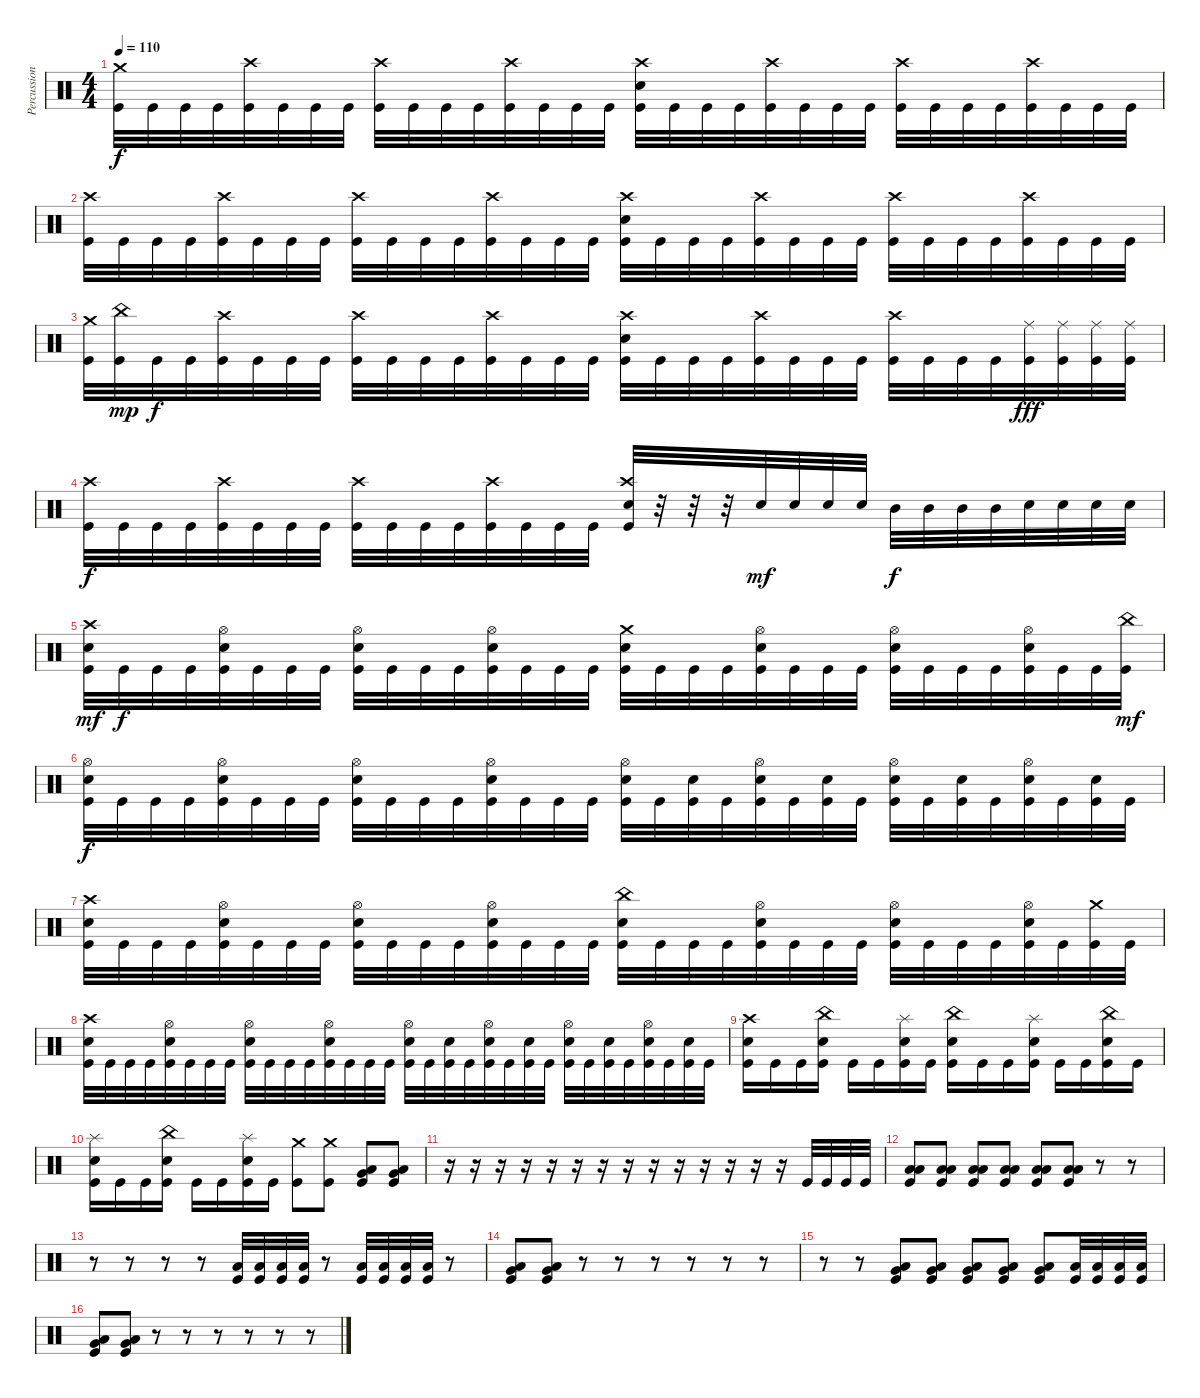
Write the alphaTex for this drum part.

\track ("Percussion" "Percussion") {instrument percussion}
\staff {score}
\articulation defaults
\ts (4 4)
\tempo 110
\clef neutral
\ks c
("Crash medium (hit)" "Kick (hit)").32{dy f} "Kick (hit)".32 "Kick (hit)".32 "Kick (hit)".32 ("Crash high (hit)" "Kick (hit)").32 "Kick (hit)".32 "Kick (hit)".32 "Kick (hit)".32 ("Crash high (hit)" "Kick (hit)").32 "Kick (hit)".32 "Kick (hit)".32 "Kick (hit)".32 ("Crash high (hit)" "Kick (hit)").32 "Kick (hit)".32 "Kick (hit)".32 "Kick (hit)".32 ("Crash high (hit)" "Snare (hit) 2" "Kick (hit)").32 "Kick (hit)".32 "Kick (hit)".32 "Kick (hit)".32 ("Crash high (hit)" "Kick (hit)").32 "Kick (hit)".32 "Kick (hit)".32 "Kick (hit)".32 ("Crash high (hit)" "Kick (hit)").32 "Kick (hit)".32 "Kick (hit)".32 "Kick (hit)".32 ("Crash high (hit)" "Kick (hit)").32 "Kick (hit)".32 "Kick (hit)".32 "Kick (hit)".32 |
("Crash high (hit)" "Kick (hit)").32 "Kick (hit)".32 "Kick (hit)".32 "Kick (hit)".32 ("Crash high (hit)" "Kick (hit)").32 "Kick (hit)".32 "Kick (hit)".32 "Kick (hit)".32 ("Crash high (hit)" "Kick (hit)").32 "Kick (hit)".32 "Kick (hit)".32 "Kick (hit)".32 ("Crash high (hit)" "Kick (hit)").32 "Kick (hit)".32 "Kick (hit)".32 "Kick (hit)".32 ("Crash high (hit)" "Snare (hit) 2" "Kick (hit)").32 "Kick (hit)".32 "Kick (hit)".32 "Kick (hit)".32 ("Crash high (hit)" "Kick (hit)").32 "Kick (hit)".32 "Kick (hit)".32 "Kick (hit)".32 ("Crash high (hit)" "Kick (hit)").32 "Kick (hit)".32 "Kick (hit)".32 "Kick (hit)".32 ("Crash high (hit)" "Kick (hit)").32 "Kick (hit)".32 "Kick (hit)".32 "Kick (hit)".32 |
("Crash medium (hit)" "Kick (hit)").32 ("China (hit)" "Kick (hit)").32{dy mp} "Kick (hit)".32{dy f} "Kick (hit)".32 ("Crash high (hit)" "Kick (hit)").32 "Kick (hit)".32 "Kick (hit)".32 "Kick (hit)".32 ("Crash high (hit)" "Kick (hit)").32 "Kick (hit)".32 "Kick (hit)".32 "Kick (hit)".32 ("Crash high (hit)" "Kick (hit)").32 "Kick (hit)".32 "Kick (hit)".32 "Kick (hit)".32 ("Crash high (hit)" "Snare (hit) 2" "Kick (hit)").32 "Kick (hit)".32 "Kick (hit)".32 "Kick (hit)".32 ("Crash high (hit)" "Kick (hit)").32 "Kick (hit)".32 "Kick (hit)".32 "Kick (hit)".32 ("Crash high (hit)" "Kick (hit)").32 "Kick (hit)".32 "Kick (hit)".32 "Kick (hit)".32 ("Ride (middle)" "Kick (hit)").32{dy fff} ("Ride (middle)" "Kick (hit)").32 ("Ride (middle)" "Kick (hit)").32 ("Ride (middle)" "Kick (hit)").32 |
("Crash high (hit)" "Kick (hit)").32{dy f} "Kick (hit)".32 "Kick (hit)".32 "Kick (hit)".32 ("Crash high (hit)" "Kick (hit)").32 "Kick (hit)".32 "Kick (hit)".32 "Kick (hit)".32 ("Crash high (hit)" "Kick (hit)").32 "Kick (hit)".32 "Kick (hit)".32 "Kick (hit)".32 ("Crash high (hit)" "Kick (hit)").32 "Kick (hit)".32 "Kick (hit)".32 "Kick (hit)".32 ("Crash high (hit)" "Snare (hit) 2" "Kick (hit)").32 r.32 r.32 r.32 "Snare (hit) 2".32{dy mf} "Snare (hit) 2".32 "Snare (hit) 2".32 "Snare (hit) 2".32 "Mid Tom (hit)".32{dy f} "Mid Tom (hit)".32 "Mid Tom (hit)".32 "Mid Tom (hit)".32 "Snare (hit) 2".32 "Snare (hit) 2".32 "Snare (hit) 2".32 "Snare (hit) 2".32 |
("Crash high (hit)" "Snare (hit) 2" "Kick (hit)").32{dy mf} "Kick (hit)".32{dy f} "Kick (hit)".32 "Kick (hit)".32 ("Hi-Hat (open)" "Snare (hit) 2" "Kick (hit)").32 "Kick (hit)".32 "Kick (hit)".32 "Kick (hit)".32 ("Hi-Hat (open)" "Snare (hit) 2" "Kick (hit)").32 "Kick (hit)".32 "Kick (hit)".32 "Kick (hit)".32 ("Hi-Hat (open)" "Snare (hit) 2" "Kick (hit)").32 "Kick (hit)".32 "Kick (hit)".32 "Kick (hit)".32 ("Crash medium (hit)" "Snare (hit) 2" "Kick (hit)").32 "Kick (hit)".32 "Kick (hit)".32 "Kick (hit)".32 ("Hi-Hat (open)" "Snare (hit) 2" "Kick (hit)").32 "Kick (hit)".32 "Kick (hit)".32 "Kick (hit)".32 ("Hi-Hat (open)" "Snare (hit) 2" "Kick (hit)").32 "Kick (hit)".32 "Kick (hit)".32 "Kick (hit)".32 ("Hi-Hat (open)" "Snare (hit) 2" "Kick (hit)").32 "Kick (hit)".32 "Kick (hit)".32 ("China (hit)" "Kick (hit)").32{dy mf} |
("Hi-Hat (open)" "Snare (hit) 2" "Kick (hit)").32{dy f} "Kick (hit)".32 "Kick (hit)".32 "Kick (hit)".32 ("Hi-Hat (open)" "Snare (hit) 2" "Kick (hit)").32 "Kick (hit)".32 "Kick (hit)".32 "Kick (hit)".32 ("Hi-Hat (open)" "Snare (hit) 2" "Kick (hit)").32 "Kick (hit)".32 "Kick (hit)".32 "Kick (hit)".32 ("Hi-Hat (open)" "Snare (hit) 2" "Kick (hit)").32 "Kick (hit)".32 "Kick (hit)".32 "Kick (hit)".32 ("Hi-Hat (open)" "Snare (hit) 2" "Kick (hit)").32 "Kick (hit)".32 ("Snare (hit) 2" "Kick (hit)").32 "Kick (hit)".32 ("Hi-Hat (open)" "Snare (hit) 2" "Kick (hit)").32 "Kick (hit)".32 ("Snare (hit) 2" "Kick (hit)").32 "Kick (hit)".32 ("Hi-Hat (open)" "Snare (hit) 2" "Kick (hit)").32 "Kick (hit)".32 ("Snare (hit) 2" "Kick (hit)").32 "Kick (hit)".32 ("Hi-Hat (open)" "Snare (hit) 2" "Kick (hit)").32 "Kick (hit)".32 ("Snare (hit) 2" "Kick (hit)").32 "Kick (hit)".32 |
("Crash high (hit)" "Snare (hit) 2" "Kick (hit)").32 "Kick (hit)".32 "Kick (hit)".32 "Kick (hit)".32 ("Hi-Hat (open)" "Snare (hit) 2" "Kick (hit)").32 "Kick (hit)".32 "Kick (hit)".32 "Kick (hit)".32 ("Hi-Hat (open)" "Snare (hit) 2" "Kick (hit)").32 "Kick (hit)".32 "Kick (hit)".32 "Kick (hit)".32 ("Hi-Hat (open)" "Snare (hit) 2" "Kick (hit)").32 "Kick (hit)".32 "Kick (hit)".32 "Kick (hit)".32 ("China (hit)" "Snare (hit) 2" "Kick (hit)").32 "Kick (hit)".32 "Kick (hit)".32 "Kick (hit)".32 ("Hi-Hat (open)" "Snare (hit) 2" "Kick (hit)").32 "Kick (hit)".32 "Kick (hit)".32 "Kick (hit)".32 ("Hi-Hat (open)" "Snare (hit) 2" "Kick (hit)").32 "Kick (hit)".32 "Kick (hit)".32 "Kick (hit)".32 ("Hi-Hat (open)" "Snare (hit) 2" "Kick (hit)").32 "Kick (hit)".32 ("Crash medium (hit)" "Kick (hit)").32 "Kick (hit)".32 |
("Crash high (hit)" "Snare (hit) 2" "Kick (hit)").32 "Kick (hit)".32 "Kick (hit)".32 "Kick (hit)".32 ("Hi-Hat (open)" "Snare (hit) 2" "Kick (hit)").32 "Kick (hit)".32 "Kick (hit)".32 "Kick (hit)".32 ("Hi-Hat (open)" "Snare (hit) 2" "Kick (hit)").32 "Kick (hit)".32 "Kick (hit)".32 "Kick (hit)".32 ("Hi-Hat (open)" "Snare (hit) 2" "Kick (hit)").32 "Kick (hit)".32 "Kick (hit)".32 "Kick (hit)".32 ("Hi-Hat (open)" "Snare (hit) 2" "Kick (hit)").32 "Kick (hit)".32 ("Snare (hit) 2" "Kick (hit)").32 "Kick (hit)".32 ("Hi-Hat (open)" "Snare (hit) 2" "Kick (hit)").32 "Kick (hit)".32 ("Snare (hit) 2" "Kick (hit)").32 "Kick (hit)".32 ("Hi-Hat (open)" "Snare (hit) 2" "Kick (hit)").32 "Kick (hit)".32 ("Snare (hit) 2" "Kick (hit)").32 "Kick (hit)".32 ("Hi-Hat (open)" "Snare (hit) 2" "Kick (hit)").32 "Kick (hit)".32 ("Snare (hit) 2" "Kick (hit)").32 "Kick (hit)".32 |
("Crash high (hit)" "Snare (hit) 2" "Kick (hit)").16 "Kick (hit)".16 "Kick (hit)".16 ("China (hit)" "Snare (hit) 2" "Kick (hit)").16 "Kick (hit)".16 "Kick (hit)".16 ("Splash (hit)" "Snare (hit) 2" "Kick (hit)").16 "Kick (hit)".16 ("China (hit)" "Snare (hit) 2" "Kick (hit)").16 "Kick (hit)".16 "Kick (hit)".16 ("Splash (hit)" "Snare (hit) 2" "Kick (hit)").16 "Kick (hit)".16 "Kick (hit)".16 ("China (hit)" "Snare (hit) 2" "Kick (hit)").16 "Kick (hit)".16 |
("Splash (hit)" "Snare (hit) 2" "Kick (hit)").16 "Kick (hit)".16 "Kick (hit)".16 ("China (hit)" "Snare (hit) 2" "Kick (hit)").16 "Kick (hit)".16 "Kick (hit)".16 ("Splash (hit)" "Snare (hit) 2" "Kick (hit)").16 "Kick (hit)".16 ("Crash medium (hit)" "Kick (hit)").8 ("Crash medium (hit)" "Kick (hit)").8 ("Low Floor Tom (hit)" "Very Low Tom (hit)" "Kick (hit)").8 ("Low Floor Tom (hit)" "Very Low Tom (hit)" "Kick (hit)").8 |
r.16 r.16 r.16 r.16 r.16 r.16 r.16 r.16 r.16 r.16 r.16 r.16 r.16 r.16 "Kick (hit)".32 "Kick (hit)".32 "Kick (hit)".32 "Kick (hit)".32 |
("Low Floor Tom (hit)" "Low Floor Tom (hit)" "Kick (hit)").8 ("Low Floor Tom (hit)" "Low Floor Tom (hit)" "Kick (hit)").8 ("Low Floor Tom (hit)" "Low Floor Tom (hit)" "Kick (hit)").8 ("Low Floor Tom (hit)" "Low Floor Tom (hit)" "Kick (hit)").8 ("Low Floor Tom (hit)" "Low Floor Tom (hit)" "Kick (hit)").8 ("Low Floor Tom (hit)" "Low Floor Tom (hit)" "Kick (hit)").8 r.8 r.8 |
r.8 r.8 r.8 r.8 ("Low Floor Tom (hit)" "Kick (hit)").32 ("Low Floor Tom (hit)" "Kick (hit)").32 ("Low Floor Tom (hit)" "Kick (hit)").32 ("Low Floor Tom (hit)" "Kick (hit)").32 r.8 ("Low Floor Tom (hit)" "Kick (hit)").32 ("Low Floor Tom (hit)" "Kick (hit)").32 ("Low Floor Tom (hit)" "Kick (hit)").32 ("Low Floor Tom (hit)" "Kick (hit)").32 r.8 |
("Low Floor Tom (hit)" "Very Low Tom (hit)" "Kick (hit)").8 ("Low Floor Tom (hit)" "Very Low Tom (hit)" "Kick (hit)").8 r.8 r.8 r.8 r.8 r.8 r.8 |
r.8 r.8 ("Low Floor Tom (hit)" "Very Low Tom (hit)" "Kick (hit)").8 ("Low Floor Tom (hit)" "Very Low Tom (hit)" "Kick (hit)").8 ("Low Floor Tom (hit)" "Very Low Tom (hit)" "Kick (hit)").8 ("Low Floor Tom (hit)" "Very Low Tom (hit)" "Kick (hit)").8 ("Low Floor Tom (hit)" "Very Low Tom (hit)" "Kick (hit)").8 ("Low Floor Tom (hit)" "Kick (hit)").32 ("Low Floor Tom (hit)" "Kick (hit)").32 ("Low Floor Tom (hit)" "Kick (hit)").32 ("Low Floor Tom (hit)" "Kick (hit)").32 |
("Low Floor Tom (hit)" "Very Low Tom (hit)" "Kick (hit)").8 ("Low Floor Tom (hit)" "Very Low Tom (hit)" "Kick (hit)").8 r.8 r.8 r.8 r.8 r.8 r.8
